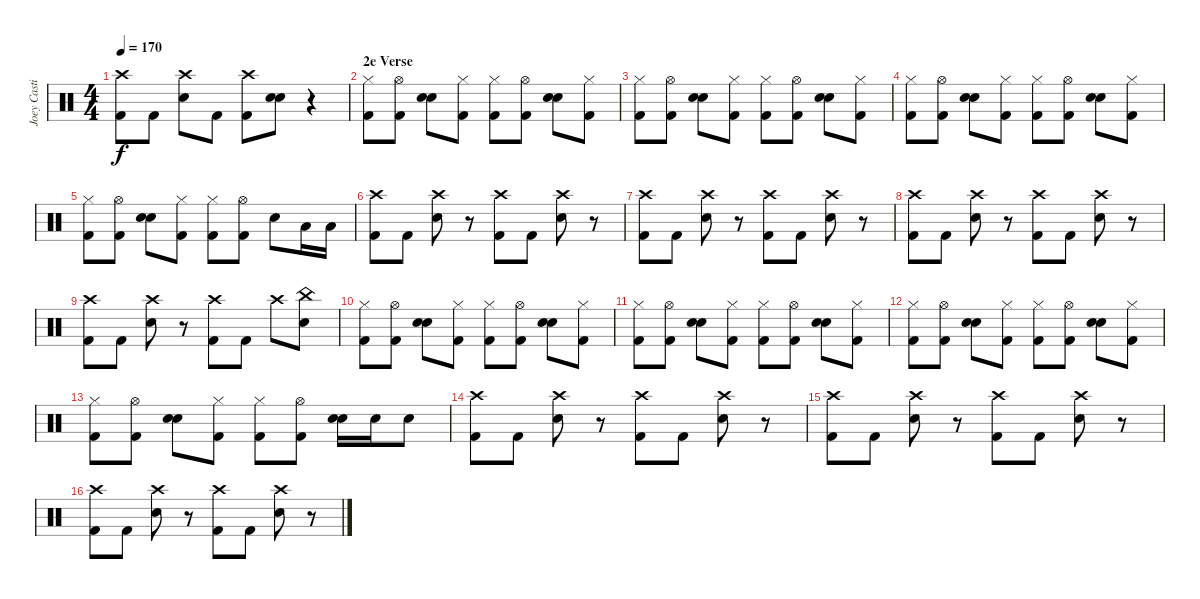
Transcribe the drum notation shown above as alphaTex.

\track ("Joey Castillo - drums" "Joey Casti") {instrument percussion}
\staff {score}
\articulation defaults
\ts (4 4)
\tempo 170
\clef neutral
\ks c
("Kick (hit) 2" "Crash high (hit)").8{dy f} "Kick (hit) 2".8 ("Electric Snare (hit)" "Crash high (hit)").8 "Kick (hit) 2".8 ("Kick (hit) 2" "Crash high (hit)").8 ("Electric Snare (hit)" "Snare (hit) 2").8 r.4 |
\section ("" "2e Verse")
("Kick (hit) 2" "Hi-Hat (closed)").8 ("Kick (hit) 2" "Hi-Hat (open)").8 ("Snare (hit) 2" "Electric Snare (hit)").8 ("Kick (hit) 2" "Hi-Hat (closed)").8 ("Kick (hit) 2" "Hi-Hat (closed)").8 ("Kick (hit) 2" "Hi-Hat (open)").8 ("Snare (hit) 2" "Electric Snare (hit)").8 ("Kick (hit) 2" "Hi-Hat (closed)").8 |
("Kick (hit) 2" "Hi-Hat (closed)").8 ("Kick (hit) 2" "Hi-Hat (open)").8 ("Snare (hit) 2" "Electric Snare (hit)").8 ("Kick (hit) 2" "Hi-Hat (closed)").8 ("Kick (hit) 2" "Hi-Hat (closed)").8 ("Kick (hit) 2" "Hi-Hat (open)").8 ("Snare (hit) 2" "Electric Snare (hit)").8 ("Kick (hit) 2" "Hi-Hat (closed)").8 |
("Kick (hit) 2" "Hi-Hat (closed)").8 ("Kick (hit) 2" "Hi-Hat (open)").8 ("Snare (hit) 2" "Electric Snare (hit)").8 ("Kick (hit) 2" "Hi-Hat (closed)").8 ("Kick (hit) 2" "Hi-Hat (closed)").8 ("Kick (hit) 2" "Hi-Hat (open)").8 ("Snare (hit) 2" "Electric Snare (hit)").8 ("Kick (hit) 2" "Hi-Hat (closed)").8 |
("Kick (hit) 2" "Hi-Hat (closed)").8 ("Kick (hit) 2" "Hi-Hat (open)").8 ("Snare (hit) 2" "Electric Snare (hit)").8 ("Kick (hit) 2" "Hi-Hat (closed)").8 ("Kick (hit) 2" "Hi-Hat (closed)").8 ("Kick (hit) 2" "Hi-Hat (open)").8 "Electric Snare (hit)".8 "Low Tom (hit)".16 "Low Tom (hit)".16 |
\section ("" "")
("Kick (hit) 2" "Crash high (hit)").8 "Kick (hit) 2".8 ("Snare (hit) 2" "Crash high (hit)").8 r.8 ("Kick (hit) 2" "Crash high (hit)").8 "Kick (hit) 2".8 ("Snare (hit) 2" "Crash high (hit)").8 r.8 |
("Kick (hit) 2" "Crash high (hit)").8 "Kick (hit) 2".8 ("Snare (hit) 2" "Crash high (hit)").8 r.8 ("Kick (hit) 2" "Crash high (hit)").8 "Kick (hit) 2".8 ("Snare (hit) 2" "Crash high (hit)").8 r.8 |
("Kick (hit) 2" "Crash high (hit)").8 "Kick (hit) 2".8 ("Snare (hit) 2" "Crash high (hit)").8 r.8 ("Kick (hit) 2" "Crash high (hit)").8 "Kick (hit) 2".8 ("Snare (hit) 2" "Crash high (hit)").8 r.8 |
("Kick (hit) 2" "Crash high (hit)").8 "Kick (hit) 2".8 ("Snare (hit) 2" "Crash high (hit)").8 r.8 ("Kick (hit) 2" "Crash high (hit)").8 "Kick (hit) 2".8 "Crash high (hit)".8 ("Electric Snare (hit)" "China (hit)").8 |
\section ("" "")
("Kick (hit) 2" "Hi-Hat (closed)").8 ("Kick (hit) 2" "Hi-Hat (open)").8 ("Snare (hit) 2" "Electric Snare (hit)").8 ("Kick (hit) 2" "Hi-Hat (closed)").8 ("Kick (hit) 2" "Hi-Hat (closed)").8 ("Kick (hit) 2" "Hi-Hat (open)").8 ("Snare (hit) 2" "Electric Snare (hit)").8 ("Kick (hit) 2" "Hi-Hat (closed)").8 |
("Kick (hit) 2" "Hi-Hat (closed)").8 ("Kick (hit) 2" "Hi-Hat (open)").8 ("Snare (hit) 2" "Electric Snare (hit)").8 ("Kick (hit) 2" "Hi-Hat (closed)").8 ("Kick (hit) 2" "Hi-Hat (closed)").8 ("Kick (hit) 2" "Hi-Hat (open)").8 ("Snare (hit) 2" "Electric Snare (hit)").8 ("Kick (hit) 2" "Hi-Hat (closed)").8 |
("Kick (hit) 2" "Hi-Hat (closed)").8 ("Kick (hit) 2" "Hi-Hat (open)").8 ("Snare (hit) 2" "Electric Snare (hit)").8 ("Kick (hit) 2" "Hi-Hat (closed)").8 ("Kick (hit) 2" "Hi-Hat (closed)").8 ("Kick (hit) 2" "Hi-Hat (open)").8 ("Snare (hit) 2" "Electric Snare (hit)").8 ("Kick (hit) 2" "Hi-Hat (closed)").8 |
("Kick (hit) 2" "Hi-Hat (closed)").8 ("Kick (hit) 2" "Hi-Hat (open)").8 ("Snare (hit) 2" "Electric Snare (hit)").8 ("Kick (hit) 2" "Hi-Hat (closed)").8 ("Kick (hit) 2" "Hi-Hat (closed)").8 ("Kick (hit) 2" "Hi-Hat (open)").8 ("Snare (hit) 2" "Electric Snare (hit)").16 "Electric Snare (hit)".16 "Electric Snare (hit)".8 |
\section ("" "")
("Kick (hit) 2" "Crash high (hit)").8 "Kick (hit) 2".8 ("Snare (hit) 2" "Crash high (hit)").8 r.8 ("Kick (hit) 2" "Crash high (hit)").8 "Kick (hit) 2".8 ("Snare (hit) 2" "Crash high (hit)").8 r.8 |
("Kick (hit) 2" "Crash high (hit)").8 "Kick (hit) 2".8 ("Snare (hit) 2" "Crash high (hit)").8 r.8 ("Kick (hit) 2" "Crash high (hit)").8 "Kick (hit) 2".8 ("Snare (hit) 2" "Crash high (hit)").8 r.8 |
("Kick (hit) 2" "Crash high (hit)").8 "Kick (hit) 2".8 ("Snare (hit) 2" "Crash high (hit)").8 r.8 ("Kick (hit) 2" "Crash high (hit)").8 "Kick (hit) 2".8 ("Snare (hit) 2" "Crash high (hit)").8 r.8
